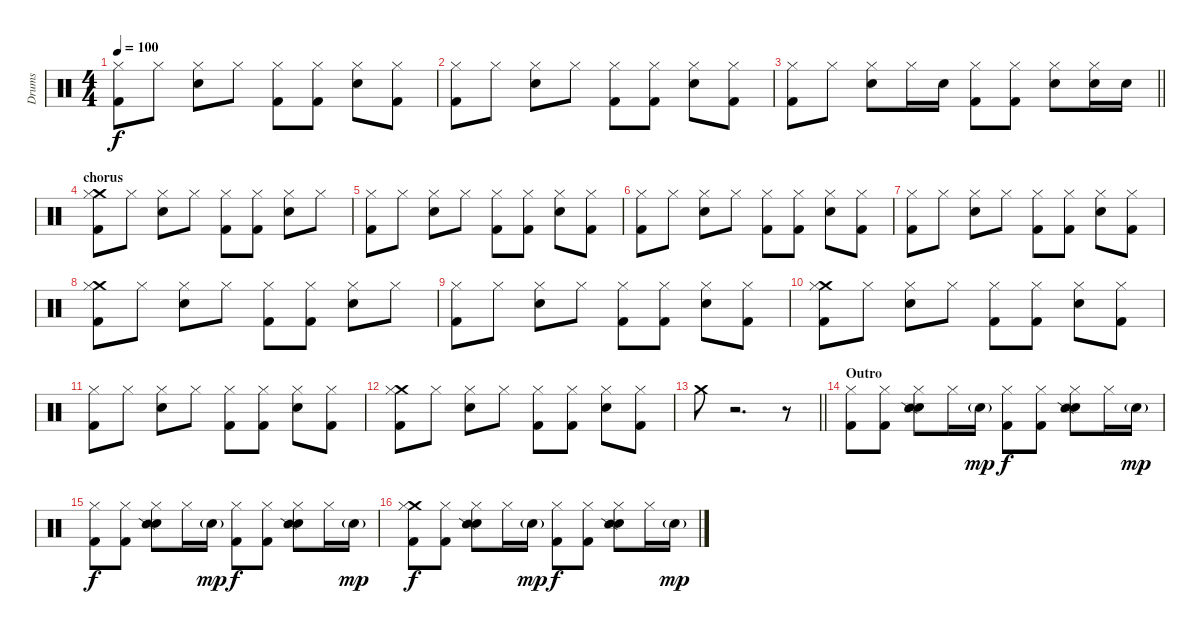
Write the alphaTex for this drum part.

\track ("Drums" "Drums") {instrument percussion}
\staff {score}
\articulation defaults
\ts (4 4)
\tempo 100
\clef neutral
\ks c
("Kick (hit) 2" "Hi-Hat (closed)").8{dy f} "Hi-Hat (closed)".8 ("Electric Snare (hit)" "Hi-Hat (closed)").8 "Hi-Hat (closed)".8 ("Kick (hit) 2" "Hi-Hat (closed)").8 ("Kick (hit) 2" "Hi-Hat (closed)").8 ("Electric Snare (hit)" "Hi-Hat (closed)").8 ("Kick (hit) 2" "Hi-Hat (closed)").8 |
("Kick (hit) 2" "Hi-Hat (closed)").8 "Hi-Hat (closed)".8 ("Electric Snare (hit)" "Hi-Hat (closed)").8 "Hi-Hat (closed)".8 ("Kick (hit) 2" "Hi-Hat (closed)").8 ("Kick (hit) 2" "Hi-Hat (closed)").8 ("Electric Snare (hit)" "Hi-Hat (closed)").8 ("Kick (hit) 2" "Hi-Hat (closed)").8 |
\barLineRight lightlight
("Kick (hit) 2" "Hi-Hat (closed)").8 "Hi-Hat (closed)".8 ("Electric Snare (hit)" "Hi-Hat (closed)").8 "Hi-Hat (closed)".16 "Electric Snare (hit)".16 ("Kick (hit) 2" "Hi-Hat (closed)").8 ("Kick (hit) 2" "Hi-Hat (closed)").8 ("Electric Snare (hit)" "Hi-Hat (closed)").8 ("Electric Snare (hit)" "Hi-Hat (closed)").16 "Electric Snare (hit)".16 |
\section ("" "chorus")
("Crash medium (hit)" "Kick (hit) 2" "Hi-Hat (closed)").8 "Hi-Hat (closed)".8 ("Electric Snare (hit)" "Hi-Hat (closed)").8 "Hi-Hat (closed)".8 ("Kick (hit) 2" "Hi-Hat (closed)").8 ("Kick (hit) 2" "Hi-Hat (closed)").8 ("Electric Snare (hit)" "Hi-Hat (closed)").8 "Hi-Hat (closed)".8 |
("Kick (hit) 2" "Hi-Hat (closed)").8 "Hi-Hat (closed)".8 ("Electric Snare (hit)" "Hi-Hat (closed)").8 "Hi-Hat (closed)".8 ("Kick (hit) 2" "Hi-Hat (closed)").8 ("Kick (hit) 2" "Hi-Hat (closed)").8 ("Electric Snare (hit)" "Hi-Hat (closed)").8 ("Kick (hit) 2" "Hi-Hat (closed)").8 |
("Kick (hit) 2" "Hi-Hat (closed)").8 "Hi-Hat (closed)".8 ("Electric Snare (hit)" "Hi-Hat (closed)").8 "Hi-Hat (closed)".8 ("Kick (hit) 2" "Hi-Hat (closed)").8 ("Kick (hit) 2" "Hi-Hat (closed)").8 ("Electric Snare (hit)" "Hi-Hat (closed)").8 ("Kick (hit) 2" "Hi-Hat (closed)").8 |
("Kick (hit) 2" "Hi-Hat (closed)").8 "Hi-Hat (closed)".8 ("Electric Snare (hit)" "Hi-Hat (closed)").8 "Hi-Hat (closed)".8 ("Kick (hit) 2" "Hi-Hat (closed)").8 ("Kick (hit) 2" "Hi-Hat (closed)").8 ("Electric Snare (hit)" "Hi-Hat (closed)").8 ("Kick (hit) 2" "Hi-Hat (closed)").8 |
("Crash medium (hit)" "Kick (hit) 2" "Hi-Hat (closed)").8 "Hi-Hat (closed)".8 ("Electric Snare (hit)" "Hi-Hat (closed)").8 "Hi-Hat (closed)".8 ("Kick (hit) 2" "Hi-Hat (closed)").8 ("Kick (hit) 2" "Hi-Hat (closed)").8 ("Electric Snare (hit)" "Hi-Hat (closed)").8 "Hi-Hat (closed)".8 |
("Kick (hit) 2" "Hi-Hat (closed)").8 "Hi-Hat (closed)".8 ("Electric Snare (hit)" "Hi-Hat (closed)").8 "Hi-Hat (closed)".8 ("Kick (hit) 2" "Hi-Hat (closed)").8 ("Kick (hit) 2" "Hi-Hat (closed)").8 ("Electric Snare (hit)" "Hi-Hat (closed)").8 ("Kick (hit) 2" "Hi-Hat (closed)").8 |
("Crash medium (hit)" "Kick (hit) 2" "Hi-Hat (closed)").8 "Hi-Hat (closed)".8 ("Electric Snare (hit)" "Hi-Hat (closed)").8 "Hi-Hat (closed)".8 ("Kick (hit) 2" "Hi-Hat (closed)").8 ("Kick (hit) 2" "Hi-Hat (closed)").8 ("Electric Snare (hit)" "Hi-Hat (closed)").8 ("Kick (hit) 2" "Hi-Hat (closed)").8 |
("Kick (hit) 2" "Hi-Hat (closed)").8 "Hi-Hat (closed)".8 ("Electric Snare (hit)" "Hi-Hat (closed)").8 "Hi-Hat (closed)".8 ("Kick (hit) 2" "Hi-Hat (closed)").8 ("Kick (hit) 2" "Hi-Hat (closed)").8 ("Electric Snare (hit)" "Hi-Hat (closed)").8 ("Kick (hit) 2" "Hi-Hat (closed)").8 |
("Crash medium (hit)" "Kick (hit) 2" "Hi-Hat (closed)").8 "Hi-Hat (closed)".8 ("Electric Snare (hit)" "Hi-Hat (closed)").8 "Hi-Hat (closed)".8 ("Kick (hit) 2" "Hi-Hat (closed)").8 ("Kick (hit) 2" "Hi-Hat (closed)").8 ("Electric Snare (hit)" "Hi-Hat (closed)").8 ("Kick (hit) 2" "Hi-Hat (closed)").8 |
\barLineRight lightlight "Crash medium (hit)".8
r.2{d} r.8 |
\section ("" "Outro")
("Hi-Hat (closed)" "Kick (hit) 2").8 ("Hi-Hat (closed)" "Kick (hit) 2").8 ("Hi-Hat (closed)" "Electric Snare (hit)" "Snare (side stick) 2").8 "Hi-Hat (closed)".16 "Electric Snare (hit)"{g}.16{dy mp} ("Hi-Hat (closed)" "Kick (hit) 2").8{dy f} ("Hi-Hat (closed)" "Kick (hit) 2").8 ("Hi-Hat (closed)" "Electric Snare (hit)" "Snare (side stick) 2").8 "Hi-Hat (closed)".16 "Electric Snare (hit)"{g}.16{dy mp} |
("Hi-Hat (closed)" "Kick (hit) 2").8{dy f} ("Hi-Hat (closed)" "Kick (hit) 2").8 ("Hi-Hat (closed)" "Electric Snare (hit)" "Snare (side stick) 2").8 "Hi-Hat (closed)".16 "Electric Snare (hit)"{g}.16{dy mp} ("Hi-Hat (closed)" "Kick (hit) 2").8{dy f} ("Hi-Hat (closed)" "Kick (hit) 2").8 ("Hi-Hat (closed)" "Electric Snare (hit)" "Snare (side stick) 2").8 "Hi-Hat (closed)".16 "Electric Snare (hit)"{g}.16{dy mp} |
("Crash medium (hit)" "Hi-Hat (closed)" "Kick (hit) 2").8{dy f} ("Hi-Hat (closed)" "Kick (hit) 2").8 ("Hi-Hat (closed)" "Electric Snare (hit)" "Snare (side stick) 2").8 "Hi-Hat (closed)".16 "Electric Snare (hit)"{g}.16{dy mp} ("Hi-Hat (closed)" "Kick (hit) 2").8{dy f} ("Hi-Hat (closed)" "Kick (hit) 2").8 ("Hi-Hat (closed)" "Electric Snare (hit)" "Snare (side stick) 2").8 "Hi-Hat (closed)".16 "Electric Snare (hit)"{g}.16{dy mp}
